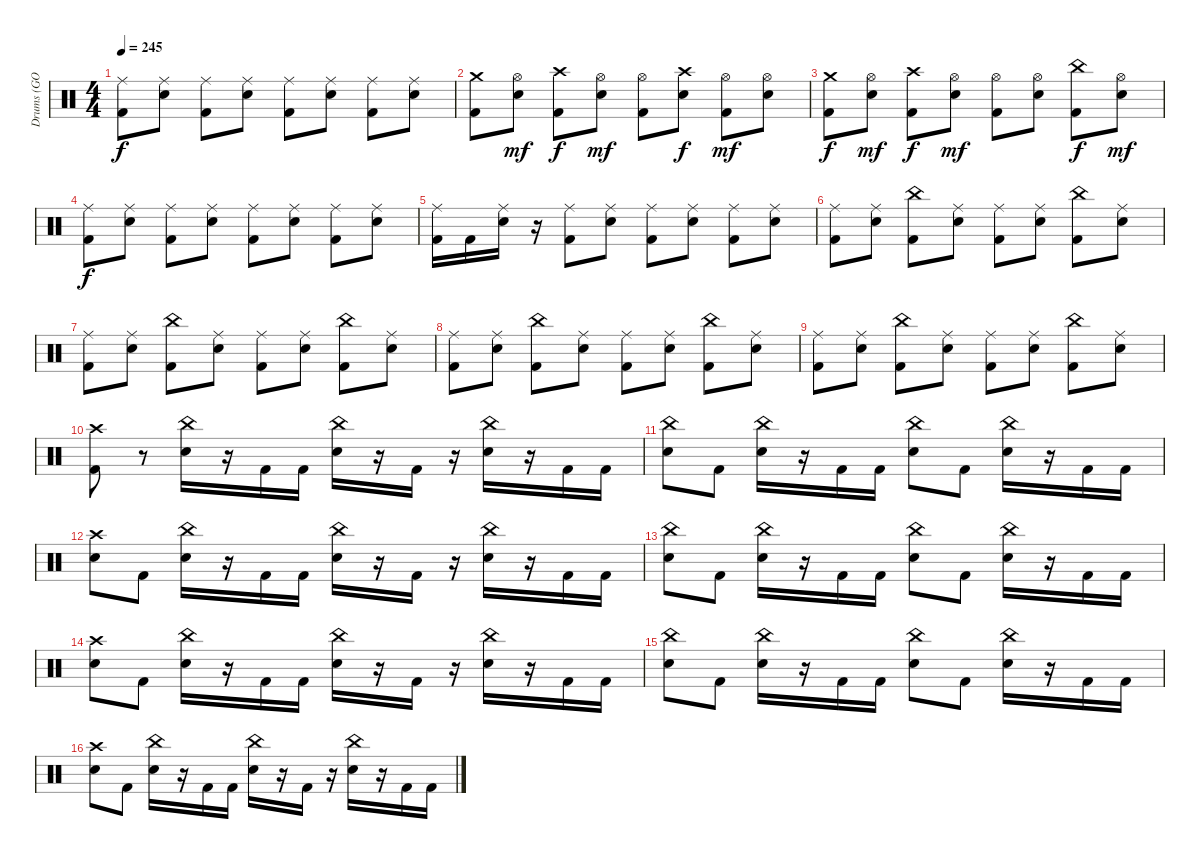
\track ("Drums (GO DIRK)" "Drums (GO ") {instrument percussion}
\staff {score}
\articulation defaults
\ts (4 4)
\tempo 245
\clef neutral
\ks c
("Ride (middle)" "Kick (hit) 2").8{dy f} ("Ride (middle)" "Electric Snare (hit)").8 ("Ride (middle)" "Kick (hit) 2").8 ("Ride (middle)" "Electric Snare (hit)").8 ("Ride (middle)" "Kick (hit) 2").8 ("Ride (middle)" "Electric Snare (hit)").8 ("Ride (middle)" "Kick (hit) 2").8 ("Ride (middle)" "Electric Snare (hit)").8 |
("Crash medium (hit)" "Kick (hit) 2").8 ("Hi-Hat (open)" "Electric Snare (hit)").8{dy mf} ("Crash high (hit)" "Kick (hit) 2").8{dy f} ("Hi-Hat (open)" "Electric Snare (hit)").8{dy mf} ("Hi-Hat (open)" "Kick (hit) 2").8 ("Crash high (hit)" "Electric Snare (hit)").8{dy f} ("Hi-Hat (open)" "Kick (hit) 2").8{dy mf} ("Hi-Hat (open)" "Electric Snare (hit)").8 |
("Crash medium (hit)" "Kick (hit) 2").8{dy f} ("Hi-Hat (open)" "Electric Snare (hit)").8{dy mf} ("Crash high (hit)" "Kick (hit) 2").8{dy f} ("Hi-Hat (open)" "Electric Snare (hit)").8{dy mf} ("Hi-Hat (open)" "Kick (hit) 2").8 ("Hi-Hat (open)" "Electric Snare (hit)").8 ("China (hit)" "Kick (hit) 2").8{dy f} ("Hi-Hat (open)" "Electric Snare (hit)").8{dy mf} |
("Ride (middle)" "Kick (hit) 2").8{dy f} ("Ride (middle)" "Electric Snare (hit)").8 ("Ride (middle)" "Kick (hit) 2").8 ("Ride (middle)" "Electric Snare (hit)").8 ("Ride (middle)" "Kick (hit) 2").8 ("Ride (middle)" "Electric Snare (hit)").8 ("Ride (middle)" "Kick (hit) 2").8 ("Ride (middle)" "Electric Snare (hit)").8 |
("Ride (middle)" "Kick (hit) 2").16 "Kick (hit) 2".16 ("Ride (middle)" "Electric Snare (hit)").16 r.16 ("Ride (middle)" "Kick (hit) 2").8 ("Ride (middle)" "Electric Snare (hit)").8 ("Ride (middle)" "Kick (hit) 2").8 ("Ride (middle)" "Electric Snare (hit)").8 ("Ride (middle)" "Kick (hit) 2").8 ("Ride (middle)" "Electric Snare (hit)").8 |
("Ride (middle)" "Kick (hit) 2").8 ("Ride (middle)" "Electric Snare (hit)").8 ("China (hit)" "Kick (hit) 2").8 ("Ride (middle)" "Electric Snare (hit)").8 ("Ride (middle)" "Kick (hit) 2").8 ("Ride (middle)" "Electric Snare (hit)").8 ("China (hit)" "Kick (hit) 2").8 ("Ride (middle)" "Electric Snare (hit)").8 |
("Ride (middle)" "Kick (hit) 2").8 ("Ride (middle)" "Electric Snare (hit)").8 ("China (hit)" "Kick (hit) 2").8 ("Ride (middle)" "Electric Snare (hit)").8 ("Ride (middle)" "Kick (hit) 2").8 ("Ride (middle)" "Electric Snare (hit)").8 ("China (hit)" "Kick (hit) 2").8 ("Ride (middle)" "Electric Snare (hit)").8 |
("Ride (middle)" "Kick (hit) 2").8 ("Ride (middle)" "Electric Snare (hit)").8 ("China (hit)" "Kick (hit) 2").8 ("Ride (middle)" "Electric Snare (hit)").8 ("Ride (middle)" "Kick (hit) 2").8 ("Ride (middle)" "Electric Snare (hit)").8 ("China (hit)" "Kick (hit) 2").8 ("Ride (middle)" "Electric Snare (hit)").8 |
("Ride (middle)" "Kick (hit) 2").8 ("Ride (middle)" "Electric Snare (hit)").8 ("China (hit)" "Kick (hit) 2").8 ("Ride (middle)" "Electric Snare (hit)").8 ("Ride (middle)" "Kick (hit) 2").8 ("Ride (middle)" "Electric Snare (hit)").8 ("China (hit)" "Kick (hit) 2").8 ("Ride (middle)" "Electric Snare (hit)").8 |
("Crash high (hit)" "Kick (hit) 2").8 r.8 ("China (hit)" "Electric Snare (hit)").16 r.16 "Kick (hit) 2".16 "Kick (hit) 2".16 ("China (hit)" "Electric Snare (hit)").16 r.16 "Kick (hit) 2".16 r.16 ("China (hit)" "Electric Snare (hit)").16 r.16 "Kick (hit) 2".16 "Kick (hit) 2".16 |
("China (hit)" "Electric Snare (hit)").8 "Kick (hit) 2".8 ("China (hit)" "Electric Snare (hit)").16 r.16 "Kick (hit) 2".16 "Kick (hit) 2".16 ("China (hit)" "Electric Snare (hit)").8 "Kick (hit) 2".8 ("China (hit)" "Electric Snare (hit)").16 r.16 "Kick (hit) 2".16 "Kick (hit) 2".16 |
("Crash high (hit)" "Electric Snare (hit)").8 "Kick (hit) 2".8 ("China (hit)" "Electric Snare (hit)").16 r.16 "Kick (hit) 2".16 "Kick (hit) 2".16 ("China (hit)" "Electric Snare (hit)").16 r.16 "Kick (hit) 2".16 r.16 ("China (hit)" "Electric Snare (hit)").16 r.16 "Kick (hit) 2".16 "Kick (hit) 2".16 |
("China (hit)" "Electric Snare (hit)").8 "Kick (hit) 2".8 ("China (hit)" "Electric Snare (hit)").16 r.16 "Kick (hit) 2".16 "Kick (hit) 2".16 ("China (hit)" "Electric Snare (hit)").8 "Kick (hit) 2".8 ("China (hit)" "Electric Snare (hit)").16 r.16 "Kick (hit) 2".16 "Kick (hit) 2".16 |
("Crash high (hit)" "Electric Snare (hit)").8 "Kick (hit) 2".8 ("China (hit)" "Electric Snare (hit)").16 r.16 "Kick (hit) 2".16 "Kick (hit) 2".16 ("China (hit)" "Electric Snare (hit)").16 r.16 "Kick (hit) 2".16 r.16 ("China (hit)" "Electric Snare (hit)").16 r.16 "Kick (hit) 2".16 "Kick (hit) 2".16 |
("China (hit)" "Electric Snare (hit)").8 "Kick (hit) 2".8 ("China (hit)" "Electric Snare (hit)").16 r.16 "Kick (hit) 2".16 "Kick (hit) 2".16 ("China (hit)" "Electric Snare (hit)").8 "Kick (hit) 2".8 ("China (hit)" "Electric Snare (hit)").16 r.16 "Kick (hit) 2".16 "Kick (hit) 2".16 |
("Crash high (hit)" "Electric Snare (hit)").8 "Kick (hit) 2".8 ("China (hit)" "Electric Snare (hit)").16 r.16 "Kick (hit) 2".16 "Kick (hit) 2".16 ("China (hit)" "Electric Snare (hit)").16 r.16 "Kick (hit) 2".16 r.16 ("China (hit)" "Electric Snare (hit)").16 r.16 "Kick (hit) 2".16 "Kick (hit) 2".16
